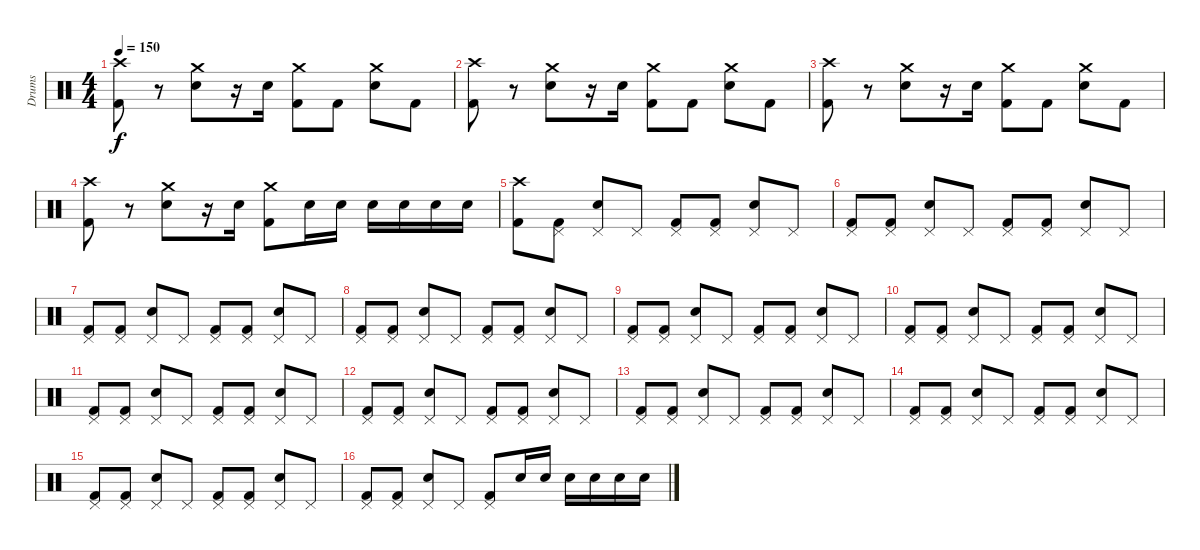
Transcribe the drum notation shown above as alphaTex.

\track ("Drums" "Drums") {instrument percussion}
\staff {score}
\articulation defaults
\ts (4 4)
\tempo 150
\clef neutral
\ks c
("Crash high (hit)" "Kick (hit) 2").8{dy f} r.8 ("Crash medium (hit)" "Electric Snare (hit)").8 r.16 "Electric Snare (hit)".16 ("Crash medium (hit)" "Kick (hit) 2").8 "Kick (hit) 2".8 ("Crash medium (hit)" "Electric Snare (hit)").8 "Kick (hit) 2".8 |
("Crash high (hit)" "Kick (hit) 2").8 r.8 ("Crash medium (hit)" "Electric Snare (hit)").8 r.16 "Electric Snare (hit)".16 ("Crash medium (hit)" "Kick (hit) 2").8 "Kick (hit) 2".8 ("Crash medium (hit)" "Electric Snare (hit)").8 "Kick (hit) 2".8 |
("Crash high (hit)" "Kick (hit) 2").8 r.8 ("Crash medium (hit)" "Electric Snare (hit)").8 r.16 "Electric Snare (hit)".16 ("Crash medium (hit)" "Kick (hit) 2").8 "Kick (hit) 2".8 ("Crash medium (hit)" "Electric Snare (hit)").8 "Kick (hit) 2".8 |
("Crash high (hit)" "Kick (hit) 2").8 r.8 ("Crash medium (hit)" "Electric Snare (hit)").8 r.16 "Electric Snare (hit)".16 ("Crash medium (hit)" "Kick (hit) 2").8 "Electric Snare (hit)".16 "Electric Snare (hit)".16 "Electric Snare (hit)".16 "Electric Snare (hit)".16 "Electric Snare (hit)".16 "Electric Snare (hit)".16 |
("Crash high (hit)" "Kick (hit) 2").8 ("Pedal Hi-Hat (hit)" "Kick (hit) 2").8 ("Pedal Hi-Hat (hit)" "Electric Snare (hit)").8 "Pedal Hi-Hat (hit)".8 ("Pedal Hi-Hat (hit)" "Kick (hit) 2").8 ("Pedal Hi-Hat (hit)" "Kick (hit) 2").8 ("Pedal Hi-Hat (hit)" "Electric Snare (hit)").8 "Pedal Hi-Hat (hit)".8 |
("Pedal Hi-Hat (hit)" "Kick (hit) 2").8 ("Pedal Hi-Hat (hit)" "Kick (hit) 2").8 ("Pedal Hi-Hat (hit)" "Electric Snare (hit)").8 "Pedal Hi-Hat (hit)".8 ("Pedal Hi-Hat (hit)" "Kick (hit) 2").8 ("Pedal Hi-Hat (hit)" "Kick (hit) 2").8 ("Pedal Hi-Hat (hit)" "Electric Snare (hit)").8 "Pedal Hi-Hat (hit)".8 |
("Pedal Hi-Hat (hit)" "Kick (hit) 2").8 ("Pedal Hi-Hat (hit)" "Kick (hit) 2").8 ("Pedal Hi-Hat (hit)" "Electric Snare (hit)").8 "Pedal Hi-Hat (hit)".8 ("Pedal Hi-Hat (hit)" "Kick (hit) 2").8 ("Pedal Hi-Hat (hit)" "Kick (hit) 2").8 ("Pedal Hi-Hat (hit)" "Electric Snare (hit)").8 "Pedal Hi-Hat (hit)".8 |
("Pedal Hi-Hat (hit)" "Kick (hit) 2").8 ("Pedal Hi-Hat (hit)" "Kick (hit) 2").8 ("Pedal Hi-Hat (hit)" "Electric Snare (hit)").8 "Pedal Hi-Hat (hit)".8 ("Pedal Hi-Hat (hit)" "Kick (hit) 2").8 ("Pedal Hi-Hat (hit)" "Kick (hit) 2").8 ("Pedal Hi-Hat (hit)" "Electric Snare (hit)").8 "Pedal Hi-Hat (hit)".8 |
("Pedal Hi-Hat (hit)" "Kick (hit) 2").8 ("Pedal Hi-Hat (hit)" "Kick (hit) 2").8 ("Pedal Hi-Hat (hit)" "Electric Snare (hit)").8 "Pedal Hi-Hat (hit)".8 ("Pedal Hi-Hat (hit)" "Kick (hit) 2").8 ("Pedal Hi-Hat (hit)" "Kick (hit) 2").8 ("Pedal Hi-Hat (hit)" "Electric Snare (hit)").8 "Pedal Hi-Hat (hit)".8 |
("Pedal Hi-Hat (hit)" "Kick (hit) 2").8 ("Pedal Hi-Hat (hit)" "Kick (hit) 2").8 ("Pedal Hi-Hat (hit)" "Electric Snare (hit)").8 "Pedal Hi-Hat (hit)".8 ("Pedal Hi-Hat (hit)" "Kick (hit) 2").8 ("Pedal Hi-Hat (hit)" "Kick (hit) 2").8 ("Pedal Hi-Hat (hit)" "Electric Snare (hit)").8 "Pedal Hi-Hat (hit)".8 |
("Pedal Hi-Hat (hit)" "Kick (hit) 2").8 ("Pedal Hi-Hat (hit)" "Kick (hit) 2").8 ("Pedal Hi-Hat (hit)" "Electric Snare (hit)").8 "Pedal Hi-Hat (hit)".8 ("Pedal Hi-Hat (hit)" "Kick (hit) 2").8 ("Pedal Hi-Hat (hit)" "Kick (hit) 2").8 ("Pedal Hi-Hat (hit)" "Electric Snare (hit)").8 "Pedal Hi-Hat (hit)".8 |
("Pedal Hi-Hat (hit)" "Kick (hit) 2").8 ("Pedal Hi-Hat (hit)" "Kick (hit) 2").8 ("Pedal Hi-Hat (hit)" "Electric Snare (hit)").8 "Pedal Hi-Hat (hit)".8 ("Pedal Hi-Hat (hit)" "Kick (hit) 2").8 ("Pedal Hi-Hat (hit)" "Kick (hit) 2").8 ("Pedal Hi-Hat (hit)" "Electric Snare (hit)").8 "Pedal Hi-Hat (hit)".8 |
("Pedal Hi-Hat (hit)" "Kick (hit) 2").8 ("Pedal Hi-Hat (hit)" "Kick (hit) 2").8 ("Pedal Hi-Hat (hit)" "Electric Snare (hit)").8 "Pedal Hi-Hat (hit)".8 ("Pedal Hi-Hat (hit)" "Kick (hit) 2").8 ("Pedal Hi-Hat (hit)" "Kick (hit) 2").8 ("Pedal Hi-Hat (hit)" "Electric Snare (hit)").8 "Pedal Hi-Hat (hit)".8 |
("Pedal Hi-Hat (hit)" "Kick (hit) 2").8 ("Pedal Hi-Hat (hit)" "Kick (hit) 2").8 ("Pedal Hi-Hat (hit)" "Electric Snare (hit)").8 "Pedal Hi-Hat (hit)".8 ("Pedal Hi-Hat (hit)" "Kick (hit) 2").8 ("Pedal Hi-Hat (hit)" "Kick (hit) 2").8 ("Pedal Hi-Hat (hit)" "Electric Snare (hit)").8 "Pedal Hi-Hat (hit)".8 |
("Pedal Hi-Hat (hit)" "Kick (hit) 2").8 ("Pedal Hi-Hat (hit)" "Kick (hit) 2").8 ("Pedal Hi-Hat (hit)" "Electric Snare (hit)").8 "Pedal Hi-Hat (hit)".8 ("Pedal Hi-Hat (hit)" "Kick (hit) 2").8 ("Pedal Hi-Hat (hit)" "Kick (hit) 2").8 ("Pedal Hi-Hat (hit)" "Electric Snare (hit)").8 "Pedal Hi-Hat (hit)".8 |
("Pedal Hi-Hat (hit)" "Kick (hit) 2").8 ("Pedal Hi-Hat (hit)" "Kick (hit) 2").8 ("Pedal Hi-Hat (hit)" "Electric Snare (hit)").8 "Pedal Hi-Hat (hit)".8 ("Pedal Hi-Hat (hit)" "Kick (hit) 2").8 "Electric Snare (hit)".16 "Electric Snare (hit)".16 "Electric Snare (hit)".16 "Electric Snare (hit)".16 "Electric Snare (hit)".16 "Electric Snare (hit)".16
